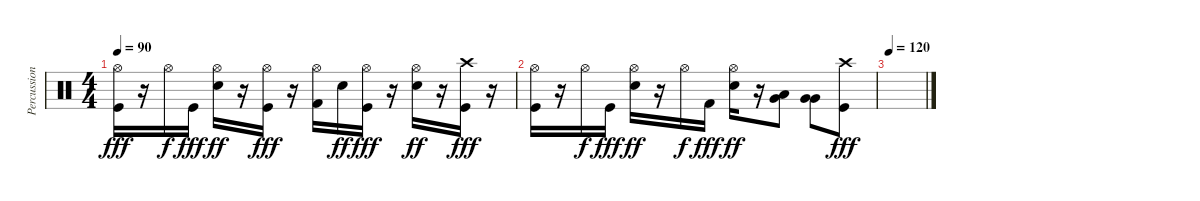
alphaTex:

\track ("Percussion" "Percussion") {instrument percussion}
\staff {score}
\articulation defaults
\ts (4 4)
\tempo 90
\clef neutral
\ks c
("Hi-Hat (open)" "Kick (hit)").16{dy fff} r.16 "Hi-Hat (open)".16{dy f} "Kick (hit)".16{dy fff} ("Hi-Hat (open)" "Snare (hit) 2").16{dy ff} r.16 ("Hi-Hat (open)" "Kick (hit)").16{dy fff} r.16 ("Hi-Hat (open)" "Kick (hit) 2").16 "Snare (hit) 2".16{dy ff} ("Hi-Hat (open)" "Kick (hit)").16{dy fff} r.16 ("Hi-Hat (open)" "Snare (hit) 2").16{dy ff} r.16 ("Crash high (hit)" "Kick (hit)").16{dy fff} r.16 |
("Hi-Hat (open)" "Kick (hit)").16 r.16 "Hi-Hat (open)".16{dy f} "Kick (hit)".16{dy fff} ("Hi-Hat (open)" "Snare (hit) 2").16{dy ff} r.16 "Hi-Hat (open)".16{dy f} "Kick (hit) 2".16{dy fff} ("Hi-Hat (open)" "Snare (hit) 2").16{dy ff} r.16 ("Low Tom (hit)" "Very Low Tom (hit)").8 ("Very Low Tom (hit)" "Very Low Tom (hit)").8 ("Crash high (hit)" "Kick (hit)").8{dy fff} |
\tempo 120
